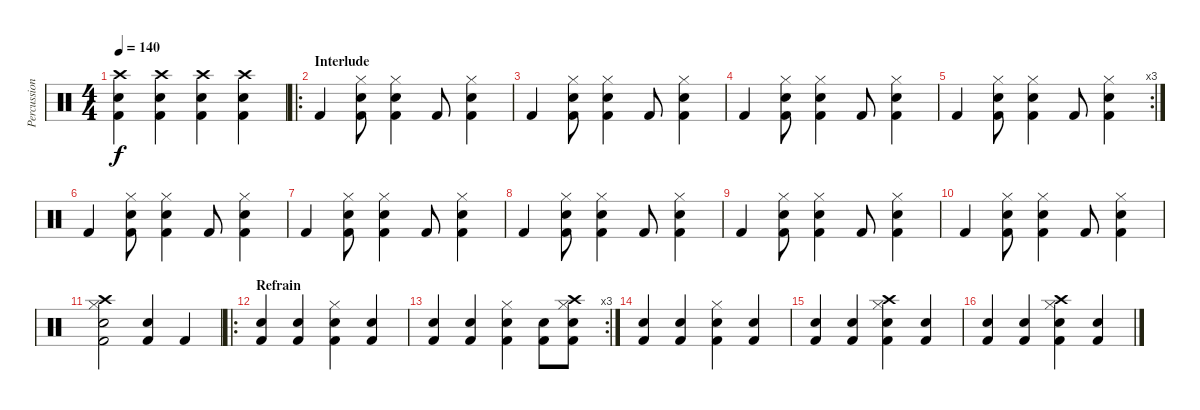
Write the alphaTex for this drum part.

\track ("Percussions" "Percussion") {instrument percussion}
\staff {score}
\articulation defaults
\ts (4 4)
\tempo 140
\clef neutral
\ks c
("Snare (hit) 2" "Kick (hit) 2" "Crash high (hit)").4{dy f} ("Snare (hit) 2" "Kick (hit) 2" "Crash high (hit)").4 ("Snare (hit) 2" "Kick (hit) 2" "Crash high (hit)").4 ("Snare (hit) 2" "Kick (hit) 2" "Crash high (hit)").4 |
\ro
\section ("" "Interlude")
"Kick (hit) 2".4 ("Snare (hit) 2" "Kick (hit) 2" "Hi-Hat (closed)").8 ("Snare (hit) 2" "Kick (hit) 2" "Hi-Hat (closed)").4 "Kick (hit) 2".8 ("Snare (hit) 2" "Kick (hit) 2" "Hi-Hat (closed)").4 |
"Kick (hit) 2".4 ("Snare (hit) 2" "Kick (hit) 2" "Hi-Hat (closed)").8 ("Snare (hit) 2" "Kick (hit) 2" "Hi-Hat (closed)").4 "Kick (hit) 2".8 ("Snare (hit) 2" "Kick (hit) 2" "Hi-Hat (closed)").4 |
"Kick (hit) 2".4 ("Snare (hit) 2" "Kick (hit) 2" "Hi-Hat (closed)").8 ("Snare (hit) 2" "Kick (hit) 2" "Hi-Hat (closed)").4 "Kick (hit) 2".8 ("Snare (hit) 2" "Kick (hit) 2" "Hi-Hat (closed)").4 |
\rc 3 "Kick (hit) 2".4
("Snare (hit) 2" "Kick (hit) 2" "Hi-Hat (closed)").8 ("Snare (hit) 2" "Kick (hit) 2" "Hi-Hat (closed)").4 "Kick (hit) 2".8 ("Snare (hit) 2" "Kick (hit) 2" "Hi-Hat (closed)").4 |
"Kick (hit) 2".4 ("Snare (hit) 2" "Kick (hit) 2" "Hi-Hat (closed)").8 ("Snare (hit) 2" "Kick (hit) 2" "Hi-Hat (closed)").4 "Kick (hit) 2".8 ("Snare (hit) 2" "Kick (hit) 2" "Hi-Hat (closed)").4 |
"Kick (hit) 2".4 ("Snare (hit) 2" "Kick (hit) 2" "Hi-Hat (closed)").8 ("Snare (hit) 2" "Kick (hit) 2" "Hi-Hat (closed)").4 "Kick (hit) 2".8 ("Snare (hit) 2" "Kick (hit) 2" "Hi-Hat (closed)").4 |
"Kick (hit) 2".4 ("Snare (hit) 2" "Kick (hit) 2" "Hi-Hat (closed)").8 ("Snare (hit) 2" "Kick (hit) 2" "Hi-Hat (closed)").4 "Kick (hit) 2".8 ("Snare (hit) 2" "Kick (hit) 2" "Hi-Hat (closed)").4 |
"Kick (hit) 2".4 ("Snare (hit) 2" "Kick (hit) 2" "Hi-Hat (closed)").8 ("Snare (hit) 2" "Kick (hit) 2" "Hi-Hat (closed)").4 "Kick (hit) 2".8 ("Snare (hit) 2" "Kick (hit) 2" "Hi-Hat (closed)").4 |
"Kick (hit) 2".4 ("Snare (hit) 2" "Kick (hit) 2" "Hi-Hat (closed)").8 ("Snare (hit) 2" "Kick (hit) 2" "Hi-Hat (closed)").4 "Kick (hit) 2".8 ("Snare (hit) 2" "Kick (hit) 2" "Hi-Hat (closed)").4 |
("Snare (hit) 2" "Kick (hit) 2" "Hi-Hat (closed)" "Crash high (hit)").2 ("Snare (hit) 2" "Kick (hit) 2").4 "Kick (hit) 2".4 |
\ro
\section ("" "Refrain")
("Snare (hit) 2" "Kick (hit) 2").4 ("Snare (hit) 2" "Kick (hit) 2").4 ("Snare (hit) 2" "Kick (hit) 2" "Hi-Hat (closed)").4 ("Snare (hit) 2" "Kick (hit) 2").4 |
\rc 3
("Snare (hit) 2" "Kick (hit) 2").4 ("Snare (hit) 2" "Kick (hit) 2").4 ("Snare (hit) 2" "Kick (hit) 2" "Hi-Hat (closed)").4 ("Snare (hit) 2" "Kick (hit) 2").8 ("Snare (hit) 2" "Kick (hit) 2" "Hi-Hat (closed)" "Crash high (hit)").8 |
("Snare (hit) 2" "Kick (hit) 2").4 ("Snare (hit) 2" "Kick (hit) 2").4 ("Snare (hit) 2" "Kick (hit) 2" "Hi-Hat (closed)").4 ("Snare (hit) 2" "Kick (hit) 2").4 |
("Snare (hit) 2" "Kick (hit) 2").4 ("Snare (hit) 2" "Kick (hit) 2").4 ("Snare (hit) 2" "Kick (hit) 2" "Hi-Hat (closed)" "Crash high (hit)").4 ("Snare (hit) 2" "Kick (hit) 2").4 |
("Snare (hit) 2" "Kick (hit) 2").4 ("Snare (hit) 2" "Kick (hit) 2").4 ("Snare (hit) 2" "Kick (hit) 2" "Hi-Hat (closed)" "Crash high (hit)").4 ("Snare (hit) 2" "Kick (hit) 2").4
